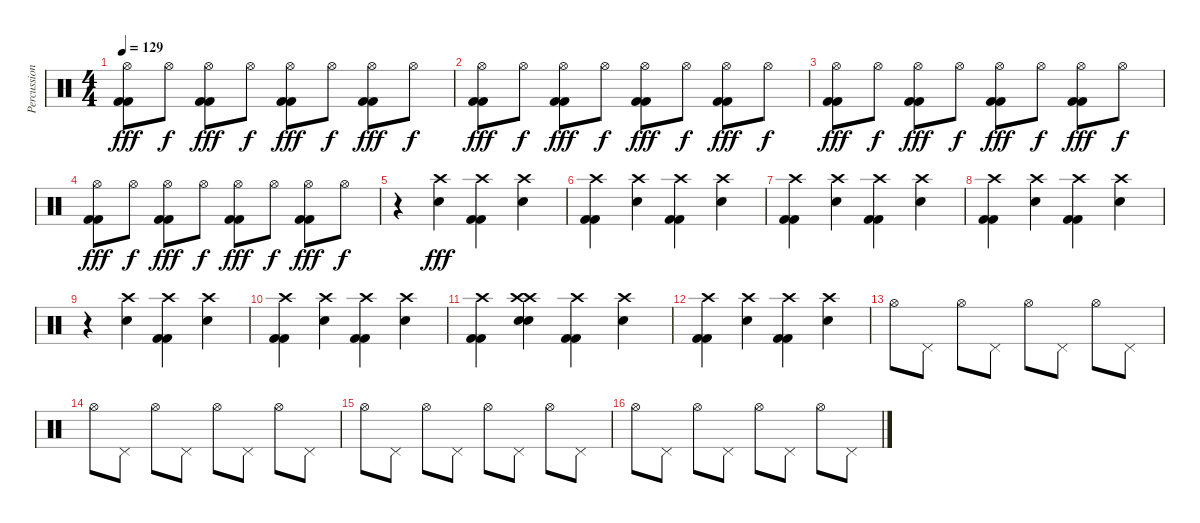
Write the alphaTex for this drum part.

\track ("Percussioni" "Percussion") {instrument percussion}
\staff {score}
\articulation defaults
\ts (4 4)
\tempo 129
\clef neutral
\ks c
("Hi-Hat (open)" "Kick (hit) 2" "Kick (hit) 2").8{dy fff} "Hi-Hat (open)".8{dy f} ("Hi-Hat (open)" "Kick (hit) 2" "Kick (hit) 2").8{dy fff} "Hi-Hat (open)".8{dy f} ("Hi-Hat (open)" "Kick (hit) 2" "Kick (hit) 2").8{dy fff} "Hi-Hat (open)".8{dy f} ("Hi-Hat (open)" "Kick (hit) 2" "Kick (hit) 2").8{dy fff} "Hi-Hat (open)".8{dy f} |
("Hi-Hat (open)" "Kick (hit) 2" "Kick (hit) 2").8{dy fff} "Hi-Hat (open)".8{dy f} ("Hi-Hat (open)" "Kick (hit) 2" "Kick (hit) 2").8{dy fff} "Hi-Hat (open)".8{dy f} ("Hi-Hat (open)" "Kick (hit) 2" "Kick (hit) 2").8{dy fff} "Hi-Hat (open)".8{dy f} ("Hi-Hat (open)" "Kick (hit) 2" "Kick (hit) 2").8{dy fff} "Hi-Hat (open)".8{dy f} |
("Hi-Hat (open)" "Kick (hit) 2" "Kick (hit) 2").8{dy fff} "Hi-Hat (open)".8{dy f} ("Hi-Hat (open)" "Kick (hit) 2" "Kick (hit) 2").8{dy fff} "Hi-Hat (open)".8{dy f} ("Hi-Hat (open)" "Kick (hit) 2" "Kick (hit) 2").8{dy fff} "Hi-Hat (open)".8{dy f} ("Hi-Hat (open)" "Kick (hit) 2" "Kick (hit) 2").8{dy fff} "Hi-Hat (open)".8{dy f} |
("Hi-Hat (open)" "Kick (hit) 2" "Kick (hit) 2").8{dy fff} "Hi-Hat (open)".8{dy f} ("Hi-Hat (open)" "Kick (hit) 2" "Kick (hit) 2").8{dy fff} "Hi-Hat (open)".8{dy f} ("Hi-Hat (open)" "Kick (hit) 2" "Kick (hit) 2").8{dy fff} "Hi-Hat (open)".8{dy f} ("Hi-Hat (open)" "Kick (hit) 2" "Kick (hit) 2").8{dy fff} "Hi-Hat (open)".8{dy f} |
r.4 ("Crash high (hit)" "Snare (hit) 2").4{dy fff} ("Crash high (hit)" "Kick (hit) 2" "Kick (hit) 2").4 ("Crash high (hit)" "Snare (hit) 2").4 |
("Crash high (hit)" "Kick (hit) 2" "Kick (hit) 2").4 ("Crash high (hit)" "Snare (hit) 2").4 ("Crash high (hit)" "Kick (hit) 2" "Kick (hit) 2").4 ("Crash high (hit)" "Snare (hit) 2").4 |
("Crash high (hit)" "Kick (hit) 2" "Kick (hit) 2").4 ("Crash high (hit)" "Snare (hit) 2").4 ("Crash high (hit)" "Kick (hit) 2" "Kick (hit) 2").4 ("Crash high (hit)" "Snare (hit) 2").4 |
("Crash high (hit)" "Kick (hit) 2" "Kick (hit) 2").4 ("Crash high (hit)" "Snare (hit) 2").4 ("Crash high (hit)" "Kick (hit) 2" "Kick (hit) 2").4 ("Crash high (hit)" "Snare (hit) 2").4 |
r.4 ("Crash high (hit)" "Snare (hit) 2").4 ("Crash high (hit)" "Kick (hit) 2" "Kick (hit) 2").4 ("Crash high (hit)" "Snare (hit) 2").4 |
("Crash high (hit)" "Kick (hit) 2" "Kick (hit) 2").4 ("Crash high (hit)" "Snare (hit) 2").4 ("Crash high (hit)" "Kick (hit) 2" "Kick (hit) 2").4 ("Crash high (hit)" "Snare (hit) 2").4 |
("Crash high (hit)" "Kick (hit) 2" "Kick (hit) 2").4 ("Crash high (hit)" "Crash high (hit)" "Snare (hit) 2" "Snare (hit) 2").4 ("Crash high (hit)" "Kick (hit) 2" "Kick (hit) 2").4 ("Crash high (hit)" "Snare (hit) 2").4 |
("Crash high (hit)" "Kick (hit) 2" "Kick (hit) 2").4 ("Crash high (hit)" "Snare (hit) 2").4 ("Crash high (hit)" "Kick (hit) 2" "Kick (hit) 2").4 ("Crash high (hit)" "Snare (hit) 2").4 |
"Hi-Hat (open)".8 "Pedal Hi-Hat (hit)".8 "Hi-Hat (open)".8 "Pedal Hi-Hat (hit)".8 "Hi-Hat (open)".8 "Pedal Hi-Hat (hit)".8 "Hi-Hat (open)".8 "Pedal Hi-Hat (hit)".8 |
"Hi-Hat (open)".8 "Pedal Hi-Hat (hit)".8 "Hi-Hat (open)".8 "Pedal Hi-Hat (hit)".8 "Hi-Hat (open)".8 "Pedal Hi-Hat (hit)".8 "Hi-Hat (open)".8 "Pedal Hi-Hat (hit)".8 |
"Hi-Hat (open)".8 "Pedal Hi-Hat (hit)".8 "Hi-Hat (open)".8 "Pedal Hi-Hat (hit)".8 "Hi-Hat (open)".8 "Pedal Hi-Hat (hit)".8 "Hi-Hat (open)".8 "Pedal Hi-Hat (hit)".8 |
"Hi-Hat (open)".8 "Pedal Hi-Hat (hit)".8 "Hi-Hat (open)".8 "Pedal Hi-Hat (hit)".8 "Hi-Hat (open)".8 "Pedal Hi-Hat (hit)".8 "Hi-Hat (open)".8 "Pedal Hi-Hat (hit)".8
